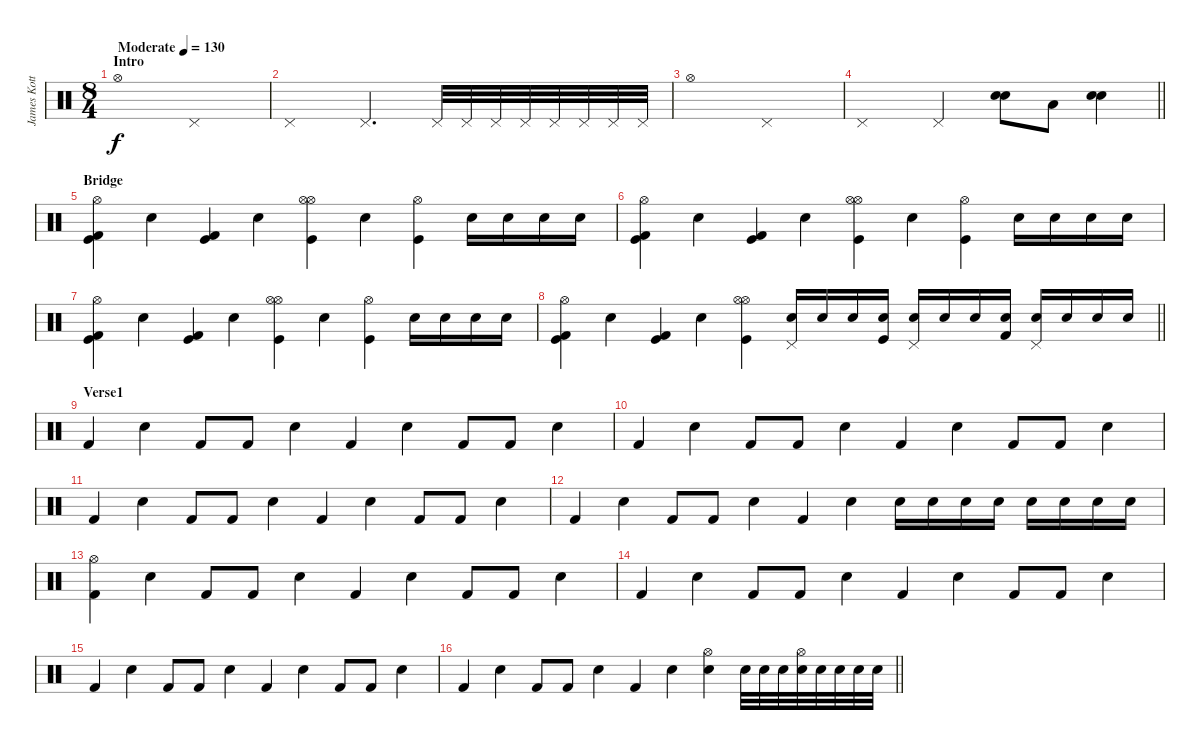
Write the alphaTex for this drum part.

\track ("James Kottak" "James Kott") {instrument percussion}
\staff {score}
\articulation defaults
\ts (8 4)
\section ("" "Intro")
\tempo (130 "Moderate")
\clef neutral
\ks c "Hi-Hat (open)".1{dy f} "Pedal Hi-Hat (hit)".1
|
"Pedal Hi-Hat (hit)".1 "Pedal Hi-Hat (hit)".2{d} "Pedal Hi-Hat (hit)".32 "Pedal Hi-Hat (hit)".32 "Pedal Hi-Hat (hit)".32 "Pedal Hi-Hat (hit)".32 "Pedal Hi-Hat (hit)".32 "Pedal Hi-Hat (hit)".32 "Pedal Hi-Hat (hit)".32 "Pedal Hi-Hat (hit)".32 |
"Hi-Hat (open)".1 "Pedal Hi-Hat (hit)".1 |
\barLineRight lightlight "Pedal Hi-Hat (hit)".1 "Pedal Hi-Hat (hit)".2
("Snare (hit) 2" "Snare (hit) 2").8 "Low Tom (hit)".8 ("Snare (hit) 2" "Snare (hit) 2").4 |
\section ("" "Bridge")
("Hi-Hat (open)" "Kick (hit)" "Kick (hit) 2").4 "Snare (hit) 2".4 ("Kick (hit) 2" "Kick (hit)").4 "Snare (hit) 2".4 ("Hi-Hat (open)" "Kick (hit)" "Hi-Hat (open)").4 "Snare (hit) 2".4 ("Hi-Hat (open)" "Kick (hit)").4 "Snare (hit) 2".16 "Snare (hit) 2".16 "Snare (hit) 2".16 "Snare (hit) 2".16 |
("Hi-Hat (open)" "Kick (hit)" "Kick (hit) 2").4 "Snare (hit) 2".4 ("Kick (hit) 2" "Kick (hit)").4 "Snare (hit) 2".4 ("Hi-Hat (open)" "Kick (hit)" "Hi-Hat (open)").4 "Snare (hit) 2".4 ("Hi-Hat (open)" "Kick (hit)").4 "Snare (hit) 2".16 "Snare (hit) 2".16 "Snare (hit) 2".16 "Snare (hit) 2".16 |
("Hi-Hat (open)" "Kick (hit)" "Kick (hit) 2").4 "Snare (hit) 2".4 ("Kick (hit) 2" "Kick (hit)").4 "Snare (hit) 2".4 ("Hi-Hat (open)" "Kick (hit)" "Hi-Hat (open)").4 "Snare (hit) 2".4 ("Hi-Hat (open)" "Kick (hit)").4 "Snare (hit) 2".16 "Snare (hit) 2".16 "Snare (hit) 2".16 "Snare (hit) 2".16 |
\barLineRight lightlight
("Hi-Hat (open)" "Kick (hit)" "Kick (hit) 2").4 "Snare (hit) 2".4 ("Kick (hit) 2" "Kick (hit)").4 "Snare (hit) 2".4 ("Hi-Hat (open)" "Kick (hit)" "Hi-Hat (open)").4 ("Pedal Hi-Hat (hit)" "Snare (hit) 2").16 "Snare (hit) 2".16 "Snare (hit) 2".16 ("Snare (hit) 2" "Kick (hit)").16 ("Pedal Hi-Hat (hit)" "Snare (hit) 2").16 "Snare (hit) 2".16 "Snare (hit) 2".16 ("Snare (hit) 2" "Kick (hit) 2").16 ("Pedal Hi-Hat (hit)" "Snare (hit) 2").16 "Snare (hit) 2".16 "Snare (hit) 2".16 "Snare (hit) 2".16 |
\section ("" "Verse1")
"Kick (hit) 2".4 "Snare (hit) 2".4 "Kick (hit) 2".8 "Kick (hit) 2".8 "Snare (hit) 2".4 "Kick (hit) 2".4 "Snare (hit) 2".4 "Kick (hit) 2".8 "Kick (hit) 2".8 "Snare (hit) 2".4 |
"Kick (hit) 2".4 "Snare (hit) 2".4 "Kick (hit) 2".8 "Kick (hit) 2".8 "Snare (hit) 2".4 "Kick (hit) 2".4 "Snare (hit) 2".4 "Kick (hit) 2".8 "Kick (hit) 2".8 "Snare (hit) 2".4 |
"Kick (hit) 2".4 "Snare (hit) 2".4 "Kick (hit) 2".8 "Kick (hit) 2".8 "Snare (hit) 2".4 "Kick (hit) 2".4 "Snare (hit) 2".4 "Kick (hit) 2".8 "Kick (hit) 2".8 "Snare (hit) 2".4 |
"Kick (hit) 2".4 "Snare (hit) 2".4 "Kick (hit) 2".8 "Kick (hit) 2".8 "Snare (hit) 2".4 "Kick (hit) 2".4 "Snare (hit) 2".4 "Snare (hit) 2".16 "Snare (hit) 2".16 "Snare (hit) 2".16 "Snare (hit) 2".16 "Snare (hit) 2".16 "Snare (hit) 2".16 "Snare (hit) 2".16 "Snare (hit) 2".16 |
("Hi-Hat (open)" "Kick (hit) 2").4 "Snare (hit) 2".4 "Kick (hit) 2".8 "Kick (hit) 2".8 "Snare (hit) 2".4 "Kick (hit) 2".4 "Snare (hit) 2".4 "Kick (hit) 2".8 "Kick (hit) 2".8 "Snare (hit) 2".4 |
"Kick (hit) 2".4 "Snare (hit) 2".4 "Kick (hit) 2".8 "Kick (hit) 2".8 "Snare (hit) 2".4 "Kick (hit) 2".4 "Snare (hit) 2".4 "Kick (hit) 2".8 "Kick (hit) 2".8 "Snare (hit) 2".4 |
"Kick (hit) 2".4 "Snare (hit) 2".4 "Kick (hit) 2".8 "Kick (hit) 2".8 "Snare (hit) 2".4 "Kick (hit) 2".4 "Snare (hit) 2".4 "Kick (hit) 2".8 "Kick (hit) 2".8 "Snare (hit) 2".4 |
\barLineRight lightlight "Kick (hit) 2".4 "Snare (hit) 2".4 "Kick (hit) 2".8 "Kick (hit) 2".8 "Snare (hit) 2".4 "Kick (hit) 2".4 "Snare (hit) 2".4
("Hi-Hat (open)" "Snare (hit) 2").4 "Snare (hit) 2".32 "Snare (hit) 2".32 "Snare (hit) 2".32 ("Hi-Hat (open)" "Snare (hit) 2").32 "Snare (hit) 2".32 "Snare (hit) 2".32 "Snare (hit) 2".32 "Snare (hit) 2".32
